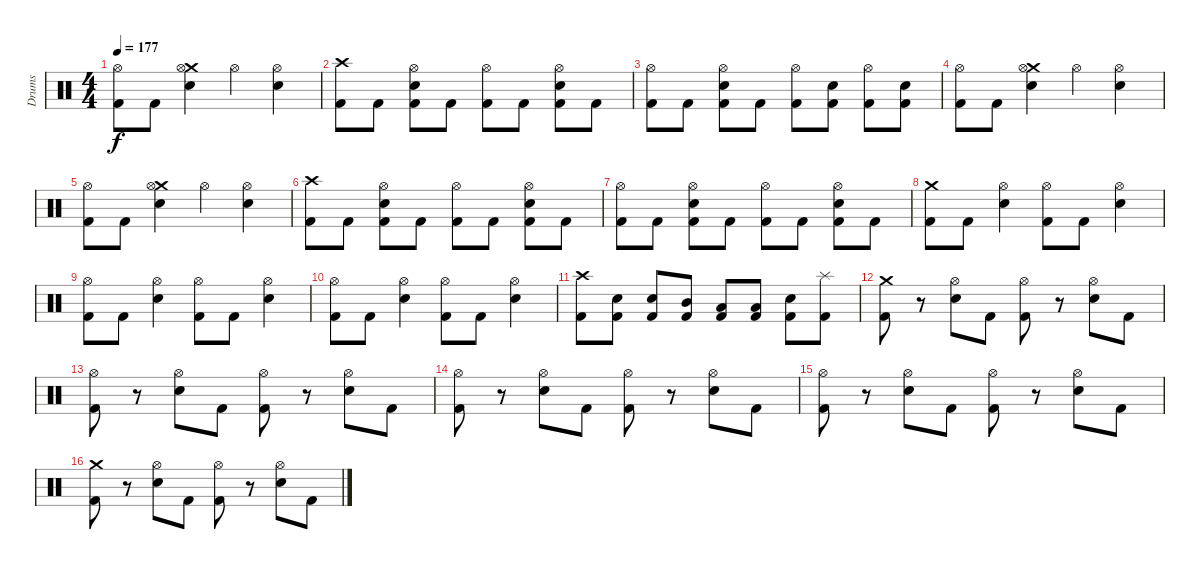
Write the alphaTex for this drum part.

\track ("Drums" "Drums") {instrument percussion}
\staff {score}
\articulation defaults
\ts (4 4)
\tempo 177
\clef neutral
\ks c
("Hi-Hat (open)" "Kick (hit) 2").8{dy f} "Kick (hit) 2".8 ("Crash medium (hit)" "Hi-Hat (open)" "Snare (hit) 2").4 "Hi-Hat (open)".4 ("Hi-Hat (open)" "Snare (hit) 2").4 |
("Crash high (hit)" "Kick (hit) 2").8 "Kick (hit) 2".8 ("Hi-Hat (open)" "Snare (hit) 2" "Kick (hit) 2").8 "Kick (hit) 2".8 ("Hi-Hat (open)" "Kick (hit) 2").8 "Kick (hit) 2".8 ("Hi-Hat (open)" "Snare (hit) 2" "Kick (hit) 2").8 "Kick (hit) 2".8 |
("Hi-Hat (open)" "Kick (hit) 2").8 "Kick (hit) 2".8 ("Hi-Hat (open)" "Snare (hit) 2" "Kick (hit) 2").8 "Kick (hit) 2".8 ("Hi-Hat (open)" "Kick (hit) 2").8 ("Snare (hit) 2" "Kick (hit) 2").8 ("Hi-Hat (open)" "Kick (hit) 2").8 ("Snare (hit) 2" "Kick (hit) 2").8 |
("Hi-Hat (open)" "Kick (hit) 2").8 "Kick (hit) 2".8 ("Crash medium (hit)" "Hi-Hat (open)" "Snare (hit) 2").4 "Hi-Hat (open)".4 ("Hi-Hat (open)" "Snare (hit) 2").4 |
("Hi-Hat (open)" "Kick (hit) 2").8 "Kick (hit) 2".8 ("Crash medium (hit)" "Hi-Hat (open)" "Snare (hit) 2").4 "Hi-Hat (open)".4 ("Hi-Hat (open)" "Snare (hit) 2").4 |
("Crash high (hit)" "Kick (hit) 2").8 "Kick (hit) 2".8 ("Hi-Hat (open)" "Snare (hit) 2" "Kick (hit) 2").8 "Kick (hit) 2".8 ("Hi-Hat (open)" "Kick (hit) 2").8 "Kick (hit) 2".8 ("Hi-Hat (open)" "Snare (hit) 2" "Kick (hit) 2").8 "Kick (hit) 2".8 |
("Hi-Hat (open)" "Kick (hit) 2").8 "Kick (hit) 2".8 ("Hi-Hat (open)" "Snare (hit) 2" "Kick (hit) 2").8 "Kick (hit) 2".8 ("Hi-Hat (open)" "Kick (hit) 2").8 "Kick (hit) 2".8 ("Hi-Hat (open)" "Snare (hit) 2" "Kick (hit) 2").8 "Kick (hit) 2".8 |
("Crash medium (hit)" "Kick (hit) 2").8 "Kick (hit) 2".8 ("Hi-Hat (open)" "Snare (hit) 2").4 ("Hi-Hat (open)" "Kick (hit) 2").8 "Kick (hit) 2".8 ("Hi-Hat (open)" "Snare (hit) 2").4 |
("Hi-Hat (open)" "Kick (hit) 2").8 "Kick (hit) 2".8 ("Hi-Hat (open)" "Snare (hit) 2").4 ("Hi-Hat (open)" "Kick (hit) 2").8 "Kick (hit) 2".8 ("Hi-Hat (open)" "Snare (hit) 2").4 |
("Hi-Hat (open)" "Kick (hit) 2").8 "Kick (hit) 2".8 ("Hi-Hat (open)" "Snare (hit) 2").4 ("Hi-Hat (open)" "Kick (hit) 2").8 "Kick (hit) 2".8 ("Hi-Hat (open)" "Snare (hit) 2").4 |
("Crash high (hit)" "Kick (hit) 2").8 ("Snare (hit) 2" "Kick (hit) 2").8 ("Snare (hit) 2" "Kick (hit) 2").8 ("Mid Tom (hit)" "Kick (hit) 2").8 ("Low Tom (hit)" "Kick (hit) 2").8 ("Low Floor Tom (hit)" "Kick (hit) 2").8 ("Snare (hit) 2" "Kick (hit) 2").8 ("Splash (hit)" "Kick (hit) 2").8 |
("Crash medium (hit)" "Kick (hit) 2").8 r.8 ("Hi-Hat (open)" "Snare (hit) 2").8 "Kick (hit) 2".8 ("Hi-Hat (open)" "Kick (hit) 2").8 r.8 ("Hi-Hat (open)" "Snare (hit) 2").8 "Kick (hit) 2".8 |
("Hi-Hat (open)" "Kick (hit) 2").8 r.8 ("Hi-Hat (open)" "Snare (hit) 2").8 "Kick (hit) 2".8 ("Hi-Hat (open)" "Kick (hit) 2").8 r.8 ("Hi-Hat (open)" "Snare (hit) 2").8 "Kick (hit) 2".8 |
("Hi-Hat (open)" "Kick (hit) 2").8 r.8 ("Hi-Hat (open)" "Snare (hit) 2").8 "Kick (hit) 2".8 ("Hi-Hat (open)" "Kick (hit) 2").8 r.8 ("Hi-Hat (open)" "Snare (hit) 2").8 "Kick (hit) 2".8 |
("Hi-Hat (open)" "Kick (hit) 2").8 r.8 ("Hi-Hat (open)" "Snare (hit) 2").8 "Kick (hit) 2".8 ("Hi-Hat (open)" "Kick (hit) 2").8 r.8 ("Hi-Hat (open)" "Snare (hit) 2").8 "Kick (hit) 2".8 |
("Crash medium (hit)" "Kick (hit) 2").8 r.8 ("Hi-Hat (open)" "Snare (hit) 2").8 "Kick (hit) 2".8 ("Hi-Hat (open)" "Kick (hit) 2").8 r.8 ("Hi-Hat (open)" "Snare (hit) 2").8 "Kick (hit) 2".8
